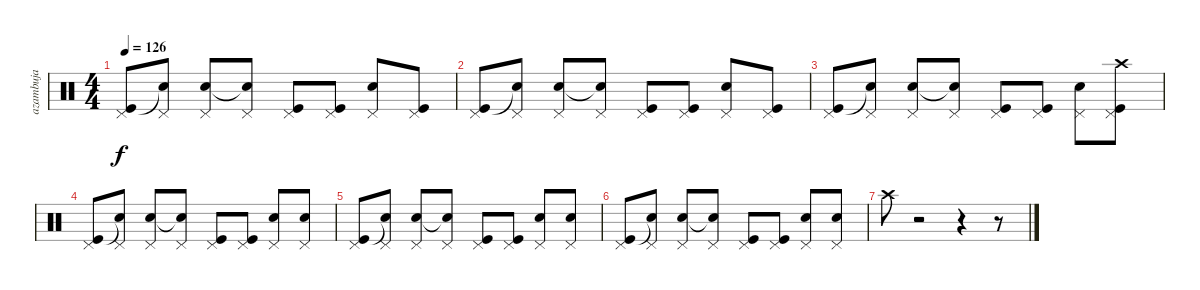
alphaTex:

\track ("azambuja" "azambuja") {instrument percussion}
\staff {score}
\articulation defaults
\ts (4 4)
\tempo 126
\clef neutral
\ks c
("Pedal Hi-Hat (hit)" "Kick (hit)").8{dy f} ("Pedal Hi-Hat (hit)" "Snare (hit)"{t}).8 ("Pedal Hi-Hat (hit)" "Snare (hit) 2").8 ("Pedal Hi-Hat (hit)" "Snare (hit) 2"{t}).8 ("Pedal Hi-Hat (hit)" "Kick (hit)").8 ("Pedal Hi-Hat (hit)" "Kick (hit)").8 ("Pedal Hi-Hat (hit)" "Snare (hit) 2").8 ("Pedal Hi-Hat (hit)" "Kick (hit)").8 |
("Pedal Hi-Hat (hit)" "Kick (hit)").8 ("Pedal Hi-Hat (hit)" "Snare (hit)"{t}).8 ("Pedal Hi-Hat (hit)" "Snare (hit) 2").8 ("Pedal Hi-Hat (hit)" "Snare (hit) 2"{t}).8 ("Pedal Hi-Hat (hit)" "Kick (hit)").8 ("Pedal Hi-Hat (hit)" "Kick (hit)").8 ("Pedal Hi-Hat (hit)" "Snare (hit) 2").8 ("Pedal Hi-Hat (hit)" "Kick (hit)").8 |
("Pedal Hi-Hat (hit)" "Kick (hit)").8 ("Pedal Hi-Hat (hit)" "Snare (hit)"{t}).8 ("Pedal Hi-Hat (hit)" "Snare (hit) 2").8 ("Pedal Hi-Hat (hit)" "Snare (hit) 2"{t}).8 ("Pedal Hi-Hat (hit)" "Kick (hit)").8 ("Pedal Hi-Hat (hit)" "Kick (hit)").8 ("Pedal Hi-Hat (hit)" "Snare (hit) 2").8 ("Crash high (hit)" "Pedal Hi-Hat (hit)" "Kick (hit)").8 |
("Pedal Hi-Hat (hit)" "Kick (hit)").8 ("Pedal Hi-Hat (hit)" "Snare (hit)"{t}).8 ("Pedal Hi-Hat (hit)" "Snare (hit) 2").8 ("Pedal Hi-Hat (hit)" "Snare (hit) 2"{t}).8 ("Pedal Hi-Hat (hit)" "Kick (hit)").8 ("Pedal Hi-Hat (hit)" "Kick (hit)").8 ("Pedal Hi-Hat (hit)" "Snare (hit) 2").8 ("Pedal Hi-Hat (hit)" "Snare (hit) 2").8 |
("Pedal Hi-Hat (hit)" "Kick (hit)").8 ("Pedal Hi-Hat (hit)" "Snare (hit)"{t}).8 ("Pedal Hi-Hat (hit)" "Snare (hit) 2").8 ("Pedal Hi-Hat (hit)" "Snare (hit) 2"{t}).8 ("Pedal Hi-Hat (hit)" "Kick (hit)").8 ("Pedal Hi-Hat (hit)" "Kick (hit)").8 ("Pedal Hi-Hat (hit)" "Snare (hit) 2").8 ("Pedal Hi-Hat (hit)" "Snare (hit) 2").8 |
("Pedal Hi-Hat (hit)" "Kick (hit)").8 ("Pedal Hi-Hat (hit)" "Snare (hit)"{t}).8 ("Pedal Hi-Hat (hit)" "Snare (hit) 2").8 ("Pedal Hi-Hat (hit)" "Snare (hit) 2"{t}).8 ("Pedal Hi-Hat (hit)" "Kick (hit)").8 ("Pedal Hi-Hat (hit)" "Kick (hit)").8 ("Pedal Hi-Hat (hit)" "Snare (hit) 2").8 ("Pedal Hi-Hat (hit)" "Snare (hit) 2").8 |
"Crash high (hit)".8 r.2 r.4 r.8
